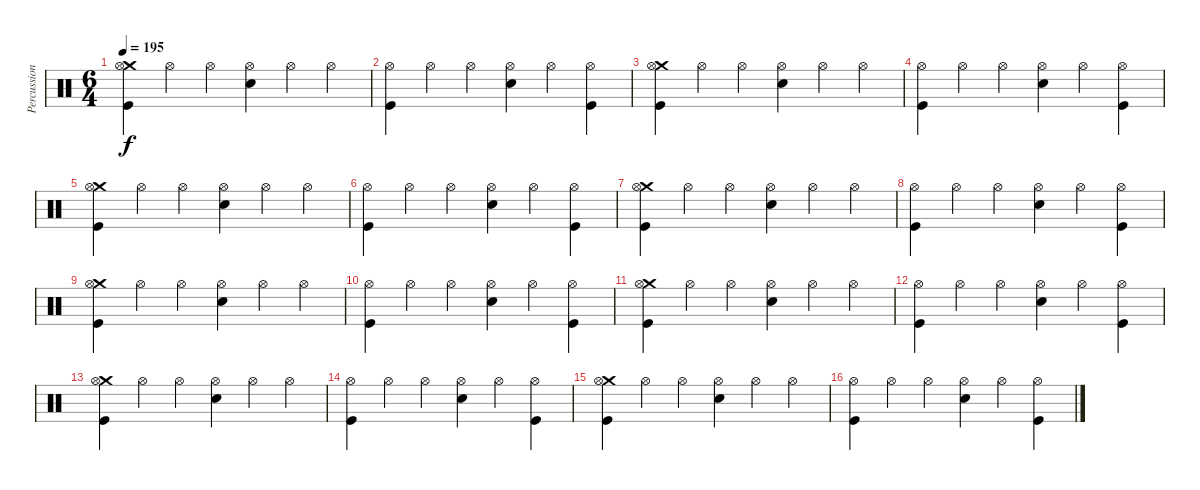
\track ("Percussion" "Percussion") {instrument percussion}
\staff {score}
\articulation defaults
\ts (6 4)
\tempo 195
\clef neutral
\ks c
("Crash medium (hit)" "Hi-Hat (open)" "Kick (hit)").4{dy f} "Hi-Hat (open)".4 "Hi-Hat (open)".4 ("Hi-Hat (open)" "Electric Snare (hit)").4 "Hi-Hat (open)".4 "Hi-Hat (open)".4 |
("Hi-Hat (open)" "Kick (hit)").4 "Hi-Hat (open)".4 "Hi-Hat (open)".4 ("Hi-Hat (open)" "Electric Snare (hit)").4 "Hi-Hat (open)".4 ("Hi-Hat (open)" "Kick (hit)").4 |
("Crash medium (hit)" "Hi-Hat (open)" "Kick (hit)").4 "Hi-Hat (open)".4 "Hi-Hat (open)".4 ("Hi-Hat (open)" "Electric Snare (hit)").4 "Hi-Hat (open)".4 "Hi-Hat (open)".4 |
("Hi-Hat (open)" "Kick (hit)").4 "Hi-Hat (open)".4 "Hi-Hat (open)".4 ("Hi-Hat (open)" "Electric Snare (hit)").4 "Hi-Hat (open)".4 ("Hi-Hat (open)" "Kick (hit)").4 |
("Crash medium (hit)" "Hi-Hat (open)" "Kick (hit)").4 "Hi-Hat (open)".4 "Hi-Hat (open)".4 ("Hi-Hat (open)" "Electric Snare (hit)").4 "Hi-Hat (open)".4 "Hi-Hat (open)".4 |
("Hi-Hat (open)" "Kick (hit)").4 "Hi-Hat (open)".4 "Hi-Hat (open)".4 ("Hi-Hat (open)" "Electric Snare (hit)").4 "Hi-Hat (open)".4 ("Hi-Hat (open)" "Kick (hit)").4 |
("Crash medium (hit)" "Hi-Hat (open)" "Kick (hit)").4 "Hi-Hat (open)".4 "Hi-Hat (open)".4 ("Hi-Hat (open)" "Electric Snare (hit)").4 "Hi-Hat (open)".4 "Hi-Hat (open)".4 |
("Hi-Hat (open)" "Kick (hit)").4 "Hi-Hat (open)".4 "Hi-Hat (open)".4 ("Hi-Hat (open)" "Electric Snare (hit)").4 "Hi-Hat (open)".4 ("Hi-Hat (open)" "Kick (hit)").4 |
("Crash medium (hit)" "Hi-Hat (open)" "Kick (hit)").4 "Hi-Hat (open)".4 "Hi-Hat (open)".4 ("Hi-Hat (open)" "Electric Snare (hit)").4 "Hi-Hat (open)".4 "Hi-Hat (open)".4 |
("Hi-Hat (open)" "Kick (hit)").4 "Hi-Hat (open)".4 "Hi-Hat (open)".4 ("Hi-Hat (open)" "Electric Snare (hit)").4 "Hi-Hat (open)".4 ("Hi-Hat (open)" "Kick (hit)").4 |
("Crash medium (hit)" "Hi-Hat (open)" "Kick (hit)").4 "Hi-Hat (open)".4 "Hi-Hat (open)".4 ("Hi-Hat (open)" "Electric Snare (hit)").4 "Hi-Hat (open)".4 "Hi-Hat (open)".4 |
("Hi-Hat (open)" "Kick (hit)").4 "Hi-Hat (open)".4 "Hi-Hat (open)".4 ("Hi-Hat (open)" "Electric Snare (hit)").4 "Hi-Hat (open)".4 ("Hi-Hat (open)" "Kick (hit)").4 |
("Crash medium (hit)" "Hi-Hat (open)" "Kick (hit)").4 "Hi-Hat (open)".4 "Hi-Hat (open)".4 ("Hi-Hat (open)" "Electric Snare (hit)").4 "Hi-Hat (open)".4 "Hi-Hat (open)".4 |
("Hi-Hat (open)" "Kick (hit)").4 "Hi-Hat (open)".4 "Hi-Hat (open)".4 ("Hi-Hat (open)" "Electric Snare (hit)").4 "Hi-Hat (open)".4 ("Hi-Hat (open)" "Kick (hit)").4 |
("Crash medium (hit)" "Hi-Hat (open)" "Kick (hit)").4 "Hi-Hat (open)".4 "Hi-Hat (open)".4 ("Hi-Hat (open)" "Electric Snare (hit)").4 "Hi-Hat (open)".4 "Hi-Hat (open)".4 |
("Hi-Hat (open)" "Kick (hit)").4 "Hi-Hat (open)".4 "Hi-Hat (open)".4 ("Hi-Hat (open)" "Electric Snare (hit)").4 "Hi-Hat (open)".4 ("Hi-Hat (open)" "Kick (hit)").4
